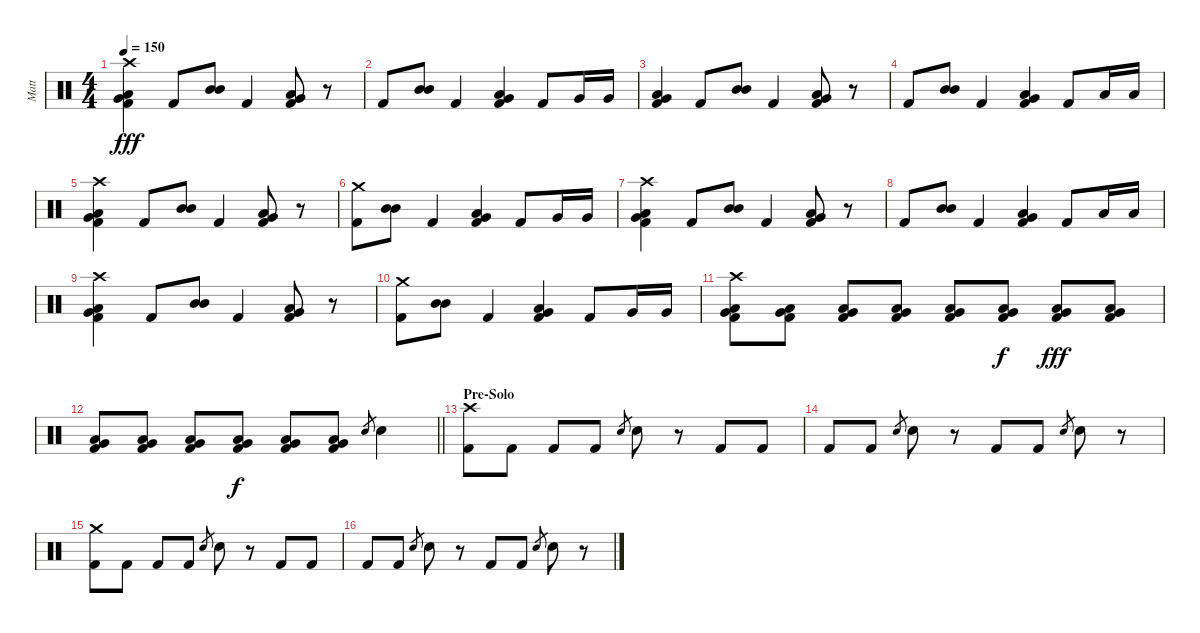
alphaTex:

\track ("Matt" "Matt") {instrument percussion}
\staff {score}
\articulation defaults
\ts (4 4)
\tempo 150
\clef neutral
\ks c
("Crash high (hit)" "Low Floor Tom (hit)" "Very Low Tom (hit)" "Kick (hit) 2").4{dy fff} "Kick (hit) 2".8 ("Mid Tom (hit)" "Mid Tom (hit)").8 "Kick (hit) 2".4 ("Low Floor Tom (hit)" "Very Low Tom (hit)" "Kick (hit) 2").8 r.8 |
"Kick (hit) 2".8 ("Mid Tom (hit)" "Mid Tom (hit)").8 "Kick (hit) 2".4 ("Low Floor Tom (hit)" "Very Low Tom (hit)" "Kick (hit) 2").4 "Kick (hit) 2".8 "Very Low Tom (hit)".16 "Very Low Tom (hit)".16 |
("Low Floor Tom (hit)" "Very Low Tom (hit)" "Kick (hit) 2").4 "Kick (hit) 2".8 ("Mid Tom (hit)" "Mid Tom (hit)").8 "Kick (hit) 2".4 ("Low Floor Tom (hit)" "Very Low Tom (hit)" "Kick (hit) 2").8 r.8 |
"Kick (hit) 2".8 ("Mid Tom (hit)" "Mid Tom (hit)").8 "Kick (hit) 2".4 ("Low Floor Tom (hit)" "Very Low Tom (hit)" "Kick (hit) 2").4 "Kick (hit) 2".8 "Low Floor Tom (hit)".16 "Low Floor Tom (hit)".16 |
("Crash high (hit)" "Low Floor Tom (hit)" "Very Low Tom (hit)" "Kick (hit) 2").4 "Kick (hit) 2".8 ("Mid Tom (hit)" "Mid Tom (hit)").8 "Kick (hit) 2".4 ("Low Floor Tom (hit)" "Very Low Tom (hit)" "Kick (hit) 2").8 r.8 |
("Crash medium (hit)" "Kick (hit) 2").8 ("Mid Tom (hit)" "Mid Tom (hit)").8 "Kick (hit) 2".4 ("Low Floor Tom (hit)" "Very Low Tom (hit)" "Kick (hit) 2").4 "Kick (hit) 2".8 "Very Low Tom (hit)".16 "Very Low Tom (hit)".16 |
("Crash high (hit)" "Low Floor Tom (hit)" "Very Low Tom (hit)" "Kick (hit) 2").4 "Kick (hit) 2".8 ("Mid Tom (hit)" "Mid Tom (hit)").8 "Kick (hit) 2".4 ("Low Floor Tom (hit)" "Very Low Tom (hit)" "Kick (hit) 2").8 r.8 |
"Kick (hit) 2".8 ("Mid Tom (hit)" "Mid Tom (hit)").8 "Kick (hit) 2".4 ("Low Floor Tom (hit)" "Very Low Tom (hit)" "Kick (hit) 2").4 "Kick (hit) 2".8 "Low Floor Tom (hit)".16 "Low Floor Tom (hit)".16 |
("Crash high (hit)" "Low Floor Tom (hit)" "Very Low Tom (hit)" "Kick (hit) 2").4 "Kick (hit) 2".8 ("Mid Tom (hit)" "Mid Tom (hit)").8 "Kick (hit) 2".4 ("Low Floor Tom (hit)" "Very Low Tom (hit)" "Kick (hit) 2").8 r.8 |
("Crash medium (hit)" "Kick (hit) 2").8 ("Mid Tom (hit)" "Mid Tom (hit)").8 "Kick (hit) 2".4 ("Low Floor Tom (hit)" "Very Low Tom (hit)" "Kick (hit) 2").4 "Kick (hit) 2".8 "Very Low Tom (hit)".16 "Very Low Tom (hit)".16 |
("Crash high (hit)" "Low Floor Tom (hit)" "Very Low Tom (hit)" "Kick (hit) 2").8 ("Low Floor Tom (hit)" "Very Low Tom (hit)" "Kick (hit) 2").8 ("Low Floor Tom (hit)" "Very Low Tom (hit)" "Kick (hit) 2").8 ("Low Floor Tom (hit)" "Very Low Tom (hit)" "Kick (hit) 2").8 ("Low Floor Tom (hit)" "Very Low Tom (hit)" "Kick (hit) 2").8 ("Low Floor Tom (hit)" "Very Low Tom (hit)" "Kick (hit) 2").8{dy f} ("Low Floor Tom (hit)" "Very Low Tom (hit)" "Kick (hit) 2").8{dy fff} ("Low Floor Tom (hit)" "Very Low Tom (hit)" "Kick (hit) 2").8 |
\barLineRight lightlight
("Low Floor Tom (hit)" "Very Low Tom (hit)" "Kick (hit) 2").8 ("Low Floor Tom (hit)" "Very Low Tom (hit)" "Kick (hit) 2").8 ("Low Floor Tom (hit)" "Very Low Tom (hit)" "Kick (hit) 2").8 ("Low Floor Tom (hit)" "Very Low Tom (hit)" "Kick (hit) 2").8{dy f} ("Low Floor Tom (hit)" "Very Low Tom (hit)" "Kick (hit) 2").8 ("Low Floor Tom (hit)" "Very Low Tom (hit)" "Kick (hit) 2").8 "Snare (hit) 2".8{gr} "Snare (hit) 2".4 |
\section ("" "Pre-Solo")
("Crash high (hit)" "Kick (hit) 2").8 "Kick (hit) 2".8 "Kick (hit) 2".8 "Kick (hit) 2".8 "Snare (hit) 2".8{gr} "Snare (hit) 2".8 r.8 "Kick (hit) 2".8 "Kick (hit) 2".8 |
"Kick (hit) 2".8 "Kick (hit) 2".8 "Snare (hit) 2".8{gr} "Snare (hit) 2".8 r.8 "Kick (hit) 2".8 "Kick (hit) 2".8 "Snare (hit) 2".8{gr} "Snare (hit) 2".8 r.8 |
("Crash medium (hit)" "Kick (hit) 2").8 "Kick (hit) 2".8 "Kick (hit) 2".8 "Kick (hit) 2".8 "Snare (hit) 2".8{gr} "Snare (hit) 2".8 r.8 "Kick (hit) 2".8 "Kick (hit) 2".8 |
"Kick (hit) 2".8 "Kick (hit) 2".8 "Snare (hit) 2".8{gr} "Snare (hit) 2".8 r.8 "Kick (hit) 2".8 "Kick (hit) 2".8 "Snare (hit) 2".8{gr} "Snare (hit) 2".8 r.8
